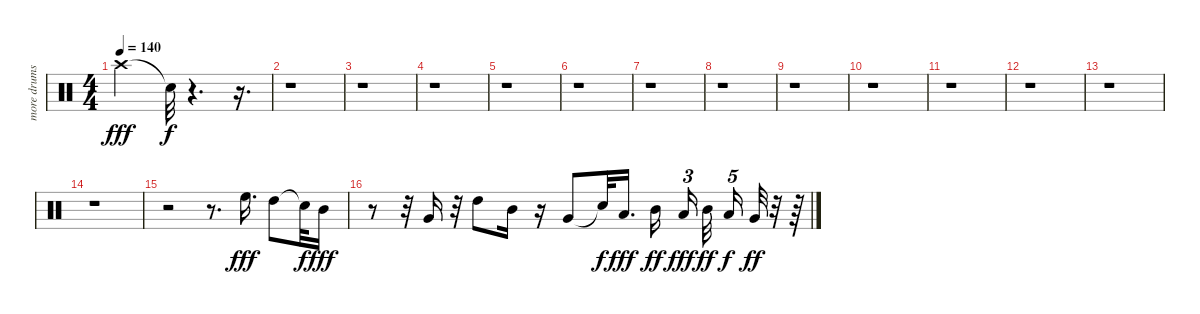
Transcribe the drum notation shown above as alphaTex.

\track ("more drums" "more drums") {instrument percussion}
\staff {score}
\articulation defaults
\ts (4 4)
\tempo 140
\clef neutral
\ks c "Crash high (hit)".2{dy fff} "Snare (hit)"{t}.32{dy f}
r.4{d} r.16{d} |
r.1 |
r.1 |
r.1 |
r.1 |
r.1 |
r.1 |
r.1 |
r.1 |
r.1 |
r.1 |
r.1 |
r.1 |
r.1 |
r.2 r.8{d} "High Floor Tom (hit)".16{d dy fff} "High Tom (hit)".8 "Snare (hit)"{t}.32{dy f} "Mid Tom (hit)".16{dy fff} |
r.8 r.32 "Very Low Tom (hit)".16 r.32 "High Tom (hit)".8 "Mid Tom (hit)".16 r.16 "Very Low Tom (hit)".8 "Snare (hit)"{t}.32{dy f} "Low Tom (hit)".16{d dy fff} "Mid Tom (hit)".16{dy ff beam splitsecondary} "Low Tom (hit)".16{tu (3 2) dy fff beam splitsecondary} "Mid Tom (hit)".32{dy ff beam splitsecondary} "Low Tom (hit)".16{tu (5 4) dy f} "Very Low Tom (hit)".32{dy ff} r.32 r.64
